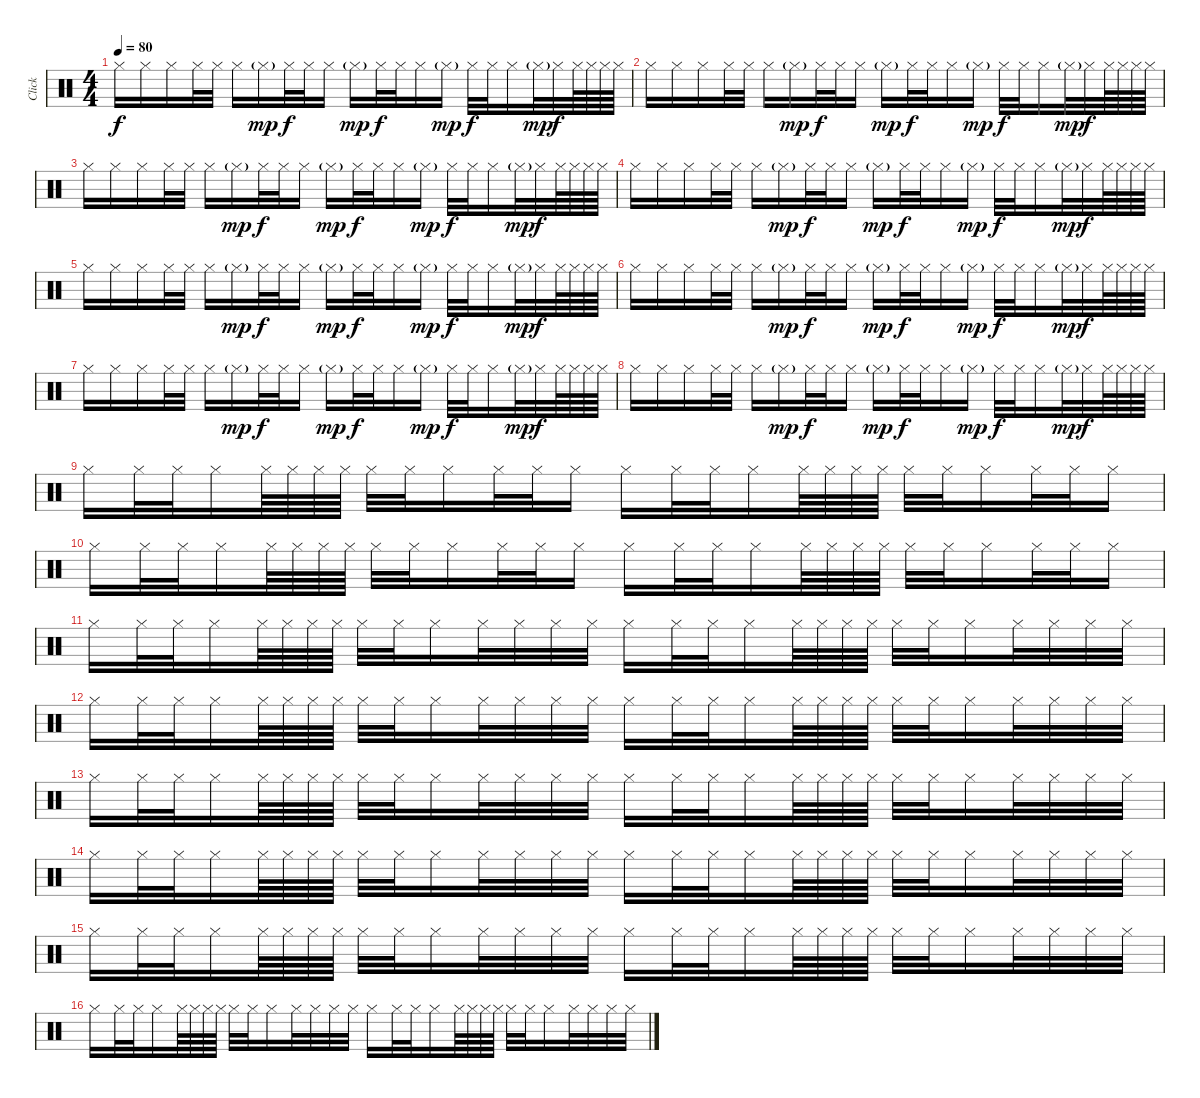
\track ("Click" "Click") {instrument percussion}
\staff {score}
\articulation defaults
\ts (4 4)
\tempo 80
\clef neutral
\ks c "Hi-Hat (closed)".16{dy f} "Hi-Hat (closed)".16 "Hi-Hat (closed)".16 "Hi-Hat (closed)".32 "Hi-Hat (closed)".32 "Hi-Hat (closed)".16 "Hi-Hat (closed)"{g}.16{dy mp} "Hi-Hat (closed)".32{dy f} "Hi-Hat (closed)".32 "Hi-Hat (closed)".16 "Hi-Hat (closed)"{g}.16{dy mp} "Hi-Hat (closed)".32{dy f} "Hi-Hat (closed)".32 "Hi-Hat (closed)".16 "Hi-Hat (closed)"{g}.16{dy mp} "Hi-Hat (closed)".32{dy f} "Hi-Hat (closed)".32 "Hi-Hat (closed)".16 "Hi-Hat (closed)"{g}.32{dy mp} "Hi-Hat (closed)".32{dy f} "Hi-Hat (closed)".64 "Hi-Hat (closed)".64 "Hi-Hat (closed)".64 "Hi-Hat (closed)".64
|
"Hi-Hat (closed)".16 "Hi-Hat (closed)".16 "Hi-Hat (closed)".16 "Hi-Hat (closed)".32 "Hi-Hat (closed)".32 "Hi-Hat (closed)".16 "Hi-Hat (closed)"{g}.16{dy mp} "Hi-Hat (closed)".32{dy f} "Hi-Hat (closed)".32 "Hi-Hat (closed)".16 "Hi-Hat (closed)"{g}.16{dy mp} "Hi-Hat (closed)".32{dy f} "Hi-Hat (closed)".32 "Hi-Hat (closed)".16 "Hi-Hat (closed)"{g}.16{dy mp} "Hi-Hat (closed)".32{dy f} "Hi-Hat (closed)".32 "Hi-Hat (closed)".16 "Hi-Hat (closed)"{g}.32{dy mp} "Hi-Hat (closed)".32{dy f} "Hi-Hat (closed)".64 "Hi-Hat (closed)".64 "Hi-Hat (closed)".64 "Hi-Hat (closed)".64 |
"Hi-Hat (closed)".16 "Hi-Hat (closed)".16 "Hi-Hat (closed)".16 "Hi-Hat (closed)".32 "Hi-Hat (closed)".32 "Hi-Hat (closed)".16 "Hi-Hat (closed)"{g}.16{dy mp} "Hi-Hat (closed)".32{dy f} "Hi-Hat (closed)".32 "Hi-Hat (closed)".16 "Hi-Hat (closed)"{g}.16{dy mp} "Hi-Hat (closed)".32{dy f} "Hi-Hat (closed)".32 "Hi-Hat (closed)".16 "Hi-Hat (closed)"{g}.16{dy mp} "Hi-Hat (closed)".32{dy f} "Hi-Hat (closed)".32 "Hi-Hat (closed)".16 "Hi-Hat (closed)"{g}.32{dy mp} "Hi-Hat (closed)".32{dy f} "Hi-Hat (closed)".64 "Hi-Hat (closed)".64 "Hi-Hat (closed)".64 "Hi-Hat (closed)".64 |
"Hi-Hat (closed)".16 "Hi-Hat (closed)".16 "Hi-Hat (closed)".16 "Hi-Hat (closed)".32 "Hi-Hat (closed)".32 "Hi-Hat (closed)".16 "Hi-Hat (closed)"{g}.16{dy mp} "Hi-Hat (closed)".32{dy f} "Hi-Hat (closed)".32 "Hi-Hat (closed)".16 "Hi-Hat (closed)"{g}.16{dy mp} "Hi-Hat (closed)".32{dy f} "Hi-Hat (closed)".32 "Hi-Hat (closed)".16 "Hi-Hat (closed)"{g}.16{dy mp} "Hi-Hat (closed)".32{dy f} "Hi-Hat (closed)".32 "Hi-Hat (closed)".16 "Hi-Hat (closed)"{g}.32{dy mp} "Hi-Hat (closed)".32{dy f} "Hi-Hat (closed)".64 "Hi-Hat (closed)".64 "Hi-Hat (closed)".64 "Hi-Hat (closed)".64 |
"Hi-Hat (closed)".16 "Hi-Hat (closed)".16 "Hi-Hat (closed)".16 "Hi-Hat (closed)".32 "Hi-Hat (closed)".32 "Hi-Hat (closed)".16 "Hi-Hat (closed)"{g}.16{dy mp} "Hi-Hat (closed)".32{dy f} "Hi-Hat (closed)".32 "Hi-Hat (closed)".16 "Hi-Hat (closed)"{g}.16{dy mp} "Hi-Hat (closed)".32{dy f} "Hi-Hat (closed)".32 "Hi-Hat (closed)".16 "Hi-Hat (closed)"{g}.16{dy mp} "Hi-Hat (closed)".32{dy f} "Hi-Hat (closed)".32 "Hi-Hat (closed)".16 "Hi-Hat (closed)"{g}.32{dy mp} "Hi-Hat (closed)".32{dy f} "Hi-Hat (closed)".64 "Hi-Hat (closed)".64 "Hi-Hat (closed)".64 "Hi-Hat (closed)".64 |
"Hi-Hat (closed)".16 "Hi-Hat (closed)".16 "Hi-Hat (closed)".16 "Hi-Hat (closed)".32 "Hi-Hat (closed)".32 "Hi-Hat (closed)".16 "Hi-Hat (closed)"{g}.16{dy mp} "Hi-Hat (closed)".32{dy f} "Hi-Hat (closed)".32 "Hi-Hat (closed)".16 "Hi-Hat (closed)"{g}.16{dy mp} "Hi-Hat (closed)".32{dy f} "Hi-Hat (closed)".32 "Hi-Hat (closed)".16 "Hi-Hat (closed)"{g}.16{dy mp} "Hi-Hat (closed)".32{dy f} "Hi-Hat (closed)".32 "Hi-Hat (closed)".16 "Hi-Hat (closed)"{g}.32{dy mp} "Hi-Hat (closed)".32{dy f} "Hi-Hat (closed)".64 "Hi-Hat (closed)".64 "Hi-Hat (closed)".64 "Hi-Hat (closed)".64 |
"Hi-Hat (closed)".16 "Hi-Hat (closed)".16 "Hi-Hat (closed)".16 "Hi-Hat (closed)".32 "Hi-Hat (closed)".32 "Hi-Hat (closed)".16 "Hi-Hat (closed)"{g}.16{dy mp} "Hi-Hat (closed)".32{dy f} "Hi-Hat (closed)".32 "Hi-Hat (closed)".16 "Hi-Hat (closed)"{g}.16{dy mp} "Hi-Hat (closed)".32{dy f} "Hi-Hat (closed)".32 "Hi-Hat (closed)".16 "Hi-Hat (closed)"{g}.16{dy mp} "Hi-Hat (closed)".32{dy f} "Hi-Hat (closed)".32 "Hi-Hat (closed)".16 "Hi-Hat (closed)"{g}.32{dy mp} "Hi-Hat (closed)".32{dy f} "Hi-Hat (closed)".64 "Hi-Hat (closed)".64 "Hi-Hat (closed)".64 "Hi-Hat (closed)".64 |
"Hi-Hat (closed)".16 "Hi-Hat (closed)".16 "Hi-Hat (closed)".16 "Hi-Hat (closed)".32 "Hi-Hat (closed)".32 "Hi-Hat (closed)".16 "Hi-Hat (closed)"{g}.16{dy mp} "Hi-Hat (closed)".32{dy f} "Hi-Hat (closed)".32 "Hi-Hat (closed)".16 "Hi-Hat (closed)"{g}.16{dy mp} "Hi-Hat (closed)".32{dy f} "Hi-Hat (closed)".32 "Hi-Hat (closed)".16 "Hi-Hat (closed)"{g}.16{dy mp} "Hi-Hat (closed)".32{dy f} "Hi-Hat (closed)".32 "Hi-Hat (closed)".16 "Hi-Hat (closed)"{g}.32{dy mp} "Hi-Hat (closed)".32{dy f} "Hi-Hat (closed)".64 "Hi-Hat (closed)".64 "Hi-Hat (closed)".64 "Hi-Hat (closed)".64 |
"Hi-Hat (closed)".16 "Hi-Hat (closed)".32 "Hi-Hat (closed)".32 "Hi-Hat (closed)".16 "Hi-Hat (closed)".64 "Hi-Hat (closed)".64 "Hi-Hat (closed)".64 "Hi-Hat (closed)".64 "Hi-Hat (closed)".32 "Hi-Hat (closed)".32 "Hi-Hat (closed)".16 "Hi-Hat (closed)".32 "Hi-Hat (closed)".32 "Hi-Hat (closed)".16 "Hi-Hat (closed)".16 "Hi-Hat (closed)".32 "Hi-Hat (closed)".32 "Hi-Hat (closed)".16 "Hi-Hat (closed)".64 "Hi-Hat (closed)".64 "Hi-Hat (closed)".64 "Hi-Hat (closed)".64 "Hi-Hat (closed)".32 "Hi-Hat (closed)".32 "Hi-Hat (closed)".16 "Hi-Hat (closed)".32 "Hi-Hat (closed)".32 "Hi-Hat (closed)".16 |
"Hi-Hat (closed)".16 "Hi-Hat (closed)".32 "Hi-Hat (closed)".32 "Hi-Hat (closed)".16 "Hi-Hat (closed)".64 "Hi-Hat (closed)".64 "Hi-Hat (closed)".64 "Hi-Hat (closed)".64 "Hi-Hat (closed)".32 "Hi-Hat (closed)".32 "Hi-Hat (closed)".16 "Hi-Hat (closed)".32 "Hi-Hat (closed)".32 "Hi-Hat (closed)".16 "Hi-Hat (closed)".16 "Hi-Hat (closed)".32 "Hi-Hat (closed)".32 "Hi-Hat (closed)".16 "Hi-Hat (closed)".64 "Hi-Hat (closed)".64 "Hi-Hat (closed)".64 "Hi-Hat (closed)".64 "Hi-Hat (closed)".32 "Hi-Hat (closed)".32 "Hi-Hat (closed)".16 "Hi-Hat (closed)".32 "Hi-Hat (closed)".32 "Hi-Hat (closed)".16 |
"Hi-Hat (closed)".16 "Hi-Hat (closed)".32 "Hi-Hat (closed)".32 "Hi-Hat (closed)".16 "Hi-Hat (closed)".64 "Hi-Hat (closed)".64 "Hi-Hat (closed)".64 "Hi-Hat (closed)".64 "Hi-Hat (closed)".32 "Hi-Hat (closed)".32 "Hi-Hat (closed)".16 "Hi-Hat (closed)".32 "Hi-Hat (closed)".32 "Hi-Hat (closed)".32 "Hi-Hat (closed)".32 "Hi-Hat (closed)".16 "Hi-Hat (closed)".32 "Hi-Hat (closed)".32 "Hi-Hat (closed)".16 "Hi-Hat (closed)".64 "Hi-Hat (closed)".64 "Hi-Hat (closed)".64 "Hi-Hat (closed)".64 "Hi-Hat (closed)".32 "Hi-Hat (closed)".32 "Hi-Hat (closed)".16 "Hi-Hat (closed)".32 "Hi-Hat (closed)".32 "Hi-Hat (closed)".32 "Hi-Hat (closed)".32 |
"Hi-Hat (closed)".16 "Hi-Hat (closed)".32 "Hi-Hat (closed)".32 "Hi-Hat (closed)".16 "Hi-Hat (closed)".64 "Hi-Hat (closed)".64 "Hi-Hat (closed)".64 "Hi-Hat (closed)".64 "Hi-Hat (closed)".32 "Hi-Hat (closed)".32 "Hi-Hat (closed)".16 "Hi-Hat (closed)".32 "Hi-Hat (closed)".32 "Hi-Hat (closed)".32 "Hi-Hat (closed)".32 "Hi-Hat (closed)".16 "Hi-Hat (closed)".32 "Hi-Hat (closed)".32 "Hi-Hat (closed)".16 "Hi-Hat (closed)".64 "Hi-Hat (closed)".64 "Hi-Hat (closed)".64 "Hi-Hat (closed)".64 "Hi-Hat (closed)".32 "Hi-Hat (closed)".32 "Hi-Hat (closed)".16 "Hi-Hat (closed)".32 "Hi-Hat (closed)".32 "Hi-Hat (closed)".32 "Hi-Hat (closed)".32 |
"Hi-Hat (closed)".16 "Hi-Hat (closed)".32 "Hi-Hat (closed)".32 "Hi-Hat (closed)".16 "Hi-Hat (closed)".64 "Hi-Hat (closed)".64 "Hi-Hat (closed)".64 "Hi-Hat (closed)".64 "Hi-Hat (closed)".32 "Hi-Hat (closed)".32 "Hi-Hat (closed)".16 "Hi-Hat (closed)".32 "Hi-Hat (closed)".32 "Hi-Hat (closed)".32 "Hi-Hat (closed)".32 "Hi-Hat (closed)".16 "Hi-Hat (closed)".32 "Hi-Hat (closed)".32 "Hi-Hat (closed)".16 "Hi-Hat (closed)".64 "Hi-Hat (closed)".64 "Hi-Hat (closed)".64 "Hi-Hat (closed)".64 "Hi-Hat (closed)".32 "Hi-Hat (closed)".32 "Hi-Hat (closed)".16 "Hi-Hat (closed)".32 "Hi-Hat (closed)".32 "Hi-Hat (closed)".32 "Hi-Hat (closed)".32 |
"Hi-Hat (closed)".16 "Hi-Hat (closed)".32 "Hi-Hat (closed)".32 "Hi-Hat (closed)".16 "Hi-Hat (closed)".64 "Hi-Hat (closed)".64 "Hi-Hat (closed)".64 "Hi-Hat (closed)".64 "Hi-Hat (closed)".32 "Hi-Hat (closed)".32 "Hi-Hat (closed)".16 "Hi-Hat (closed)".32 "Hi-Hat (closed)".32 "Hi-Hat (closed)".32 "Hi-Hat (closed)".32 "Hi-Hat (closed)".16 "Hi-Hat (closed)".32 "Hi-Hat (closed)".32 "Hi-Hat (closed)".16 "Hi-Hat (closed)".64 "Hi-Hat (closed)".64 "Hi-Hat (closed)".64 "Hi-Hat (closed)".64 "Hi-Hat (closed)".32 "Hi-Hat (closed)".32 "Hi-Hat (closed)".16 "Hi-Hat (closed)".32 "Hi-Hat (closed)".32 "Hi-Hat (closed)".32 "Hi-Hat (closed)".32 |
"Hi-Hat (closed)".16 "Hi-Hat (closed)".32 "Hi-Hat (closed)".32 "Hi-Hat (closed)".16 "Hi-Hat (closed)".64 "Hi-Hat (closed)".64 "Hi-Hat (closed)".64 "Hi-Hat (closed)".64 "Hi-Hat (closed)".32 "Hi-Hat (closed)".32 "Hi-Hat (closed)".16 "Hi-Hat (closed)".32 "Hi-Hat (closed)".32 "Hi-Hat (closed)".32 "Hi-Hat (closed)".32 "Hi-Hat (closed)".16 "Hi-Hat (closed)".32 "Hi-Hat (closed)".32 "Hi-Hat (closed)".16 "Hi-Hat (closed)".64 "Hi-Hat (closed)".64 "Hi-Hat (closed)".64 "Hi-Hat (closed)".64 "Hi-Hat (closed)".32 "Hi-Hat (closed)".32 "Hi-Hat (closed)".16 "Hi-Hat (closed)".32 "Hi-Hat (closed)".32 "Hi-Hat (closed)".32 "Hi-Hat (closed)".32 |
"Hi-Hat (closed)".16 "Hi-Hat (closed)".32 "Hi-Hat (closed)".32 "Hi-Hat (closed)".16 "Hi-Hat (closed)".64 "Hi-Hat (closed)".64 "Hi-Hat (closed)".64 "Hi-Hat (closed)".64 "Hi-Hat (closed)".32 "Hi-Hat (closed)".32 "Hi-Hat (closed)".16 "Hi-Hat (closed)".32 "Hi-Hat (closed)".32 "Hi-Hat (closed)".32 "Hi-Hat (closed)".32 "Hi-Hat (closed)".16 "Hi-Hat (closed)".32 "Hi-Hat (closed)".32 "Hi-Hat (closed)".16 "Hi-Hat (closed)".64 "Hi-Hat (closed)".64 "Hi-Hat (closed)".64 "Hi-Hat (closed)".64 "Hi-Hat (closed)".32 "Hi-Hat (closed)".32 "Hi-Hat (closed)".16 "Hi-Hat (closed)".32 "Hi-Hat (closed)".32 "Hi-Hat (closed)".32 "Hi-Hat (closed)".32
